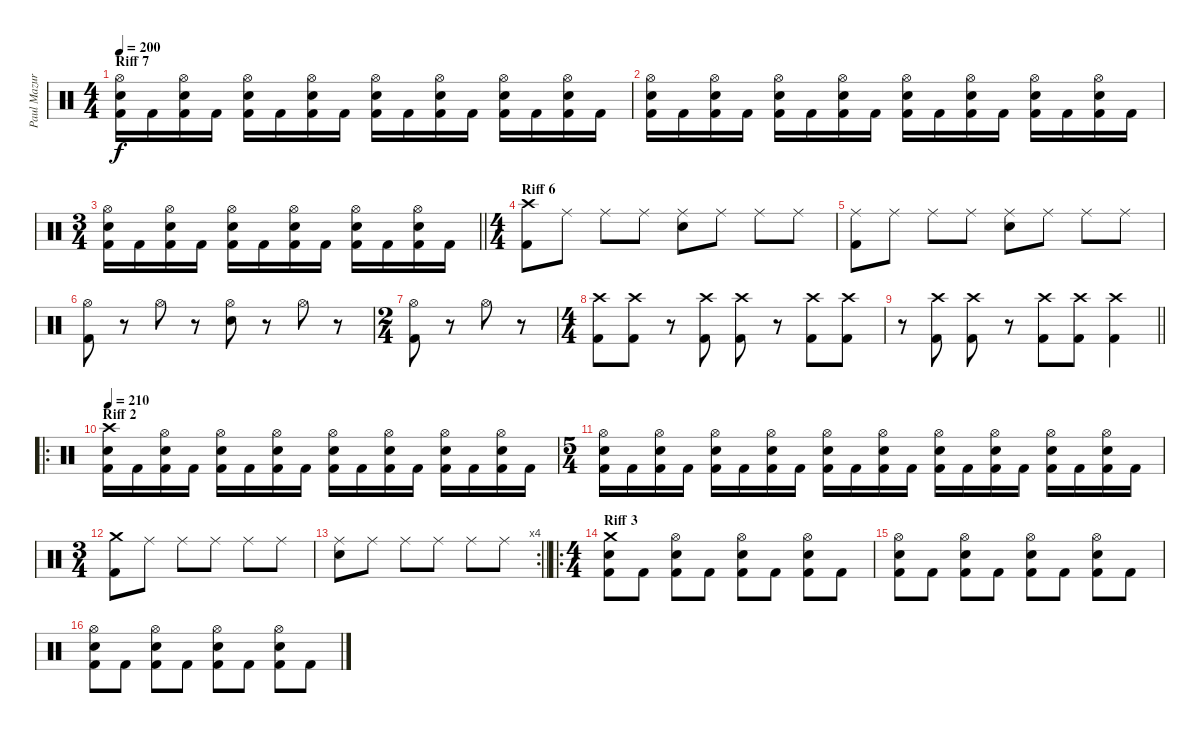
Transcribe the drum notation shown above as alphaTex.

\track ("Paul Mazurkiewicz" "Paul Mazur") {instrument percussion}
\staff {score}
\articulation defaults
\ts (4 4)
\section ("" "Riff 7")
\tempo 200
\clef neutral
\ks c
("Hi-Hat (open)" "Electric Snare (hit)" "Kick (hit) 2").16{dy f} "Kick (hit) 2".16 ("Hi-Hat (open)" "Electric Snare (hit)" "Kick (hit) 2").16 "Kick (hit) 2".16 ("Hi-Hat (open)" "Electric Snare (hit)" "Kick (hit) 2").16 "Kick (hit) 2".16 ("Hi-Hat (open)" "Electric Snare (hit)" "Kick (hit) 2").16 "Kick (hit) 2".16 ("Hi-Hat (open)" "Electric Snare (hit)" "Kick (hit) 2").16 "Kick (hit) 2".16 ("Hi-Hat (open)" "Electric Snare (hit)" "Kick (hit) 2").16 "Kick (hit) 2".16 ("Hi-Hat (open)" "Electric Snare (hit)" "Kick (hit) 2").16 "Kick (hit) 2".16 ("Hi-Hat (open)" "Electric Snare (hit)" "Kick (hit) 2").16 "Kick (hit) 2".16 |
("Hi-Hat (open)" "Electric Snare (hit)" "Kick (hit) 2").16 "Kick (hit) 2".16 ("Hi-Hat (open)" "Electric Snare (hit)" "Kick (hit) 2").16 "Kick (hit) 2".16 ("Hi-Hat (open)" "Electric Snare (hit)" "Kick (hit) 2").16 "Kick (hit) 2".16 ("Hi-Hat (open)" "Electric Snare (hit)" "Kick (hit) 2").16 "Kick (hit) 2".16 ("Hi-Hat (open)" "Electric Snare (hit)" "Kick (hit) 2").16 "Kick (hit) 2".16 ("Hi-Hat (open)" "Electric Snare (hit)" "Kick (hit) 2").16 "Kick (hit) 2".16 ("Hi-Hat (open)" "Electric Snare (hit)" "Kick (hit) 2").16 "Kick (hit) 2".16 ("Hi-Hat (open)" "Electric Snare (hit)" "Kick (hit) 2").16 "Kick (hit) 2".16 |
\ts (3 4)
\barLineRight lightlight
("Hi-Hat (open)" "Electric Snare (hit)" "Kick (hit) 2").16 "Kick (hit) 2".16 ("Hi-Hat (open)" "Electric Snare (hit)" "Kick (hit) 2").16 "Kick (hit) 2".16 ("Hi-Hat (open)" "Electric Snare (hit)" "Kick (hit) 2").16 "Kick (hit) 2".16 ("Hi-Hat (open)" "Electric Snare (hit)" "Kick (hit) 2").16 "Kick (hit) 2".16 ("Hi-Hat (open)" "Electric Snare (hit)" "Kick (hit) 2").16 "Kick (hit) 2".16 ("Hi-Hat (open)" "Electric Snare (hit)" "Kick (hit) 2").16 "Kick (hit) 2".16 |
\ts (4 4)
\section ("" "Riff 6")
("Crash high (hit)" "Kick (hit) 2").8 "Ride (middle)".8 "Ride (middle)".8 "Ride (middle)".8 ("Ride (middle)" "Electric Snare (hit)").8 "Ride (middle)".8 "Ride (middle)".8 "Ride (middle)".8 |
("Ride (middle)" "Kick (hit) 2").8 "Ride (middle)".8 "Ride (middle)".8 "Ride (middle)".8 ("Ride (middle)" "Electric Snare (hit)").8 "Ride (middle)".8 "Ride (middle)".8 "Ride (middle)".8 |
("Hi-Hat (open)" "Kick (hit) 2").8 r.8 "Hi-Hat (open)".8 r.8 ("Hi-Hat (open)" "Electric Snare (hit)").8 r.8 "Hi-Hat (open)".8 r.8 |
\ts (2 4)
("Hi-Hat (open)" "Kick (hit) 2").8 r.8 "Hi-Hat (open)".8 r.8 |
\ts (4 4)
("Crash high (hit)" "Kick (hit) 2").8 ("Crash high (hit)" "Kick (hit) 2").8 r.8 ("Crash high (hit)" "Kick (hit) 2").8 ("Crash high (hit)" "Kick (hit) 2").8 r.8 ("Crash high (hit)" "Kick (hit) 2").8 ("Crash high (hit)" "Kick (hit) 2").8 |
\barLineRight lightlight
r.8 ("Crash high (hit)" "Kick (hit) 2").8 ("Crash high (hit)" "Kick (hit) 2").8 r.8 ("Crash high (hit)" "Kick (hit) 2").8 ("Crash high (hit)" "Kick (hit) 2").8 ("Crash high (hit)" "Kick (hit) 2").4 |
\ro
\section ("" "Riff 2")
\tempo 210
("Crash high (hit)" "Electric Snare (hit)" "Kick (hit) 2").16 "Kick (hit) 2".16 ("Hi-Hat (open)" "Electric Snare (hit)" "Kick (hit) 2").16 "Kick (hit) 2".16 ("Hi-Hat (open)" "Electric Snare (hit)" "Kick (hit) 2").16 "Kick (hit) 2".16 ("Hi-Hat (open)" "Electric Snare (hit)" "Kick (hit) 2").16 "Kick (hit) 2".16 ("Hi-Hat (open)" "Electric Snare (hit)" "Kick (hit) 2").16 "Kick (hit) 2".16 ("Hi-Hat (open)" "Electric Snare (hit)" "Kick (hit) 2").16 "Kick (hit) 2".16 ("Hi-Hat (open)" "Electric Snare (hit)" "Kick (hit) 2").16 "Kick (hit) 2".16 ("Hi-Hat (open)" "Electric Snare (hit)" "Kick (hit) 2").16 "Kick (hit) 2".16 |
\ts (5 4)
("Hi-Hat (open)" "Electric Snare (hit)" "Kick (hit) 2").16 "Kick (hit) 2".16 ("Hi-Hat (open)" "Electric Snare (hit)" "Kick (hit) 2").16 "Kick (hit) 2".16 ("Hi-Hat (open)" "Electric Snare (hit)" "Kick (hit) 2").16 "Kick (hit) 2".16 ("Hi-Hat (open)" "Electric Snare (hit)" "Kick (hit) 2").16 "Kick (hit) 2".16 ("Hi-Hat (open)" "Electric Snare (hit)" "Kick (hit) 2").16 "Kick (hit) 2".16 ("Hi-Hat (open)" "Electric Snare (hit)" "Kick (hit) 2").16 "Kick (hit) 2".16 ("Hi-Hat (open)" "Electric Snare (hit)" "Kick (hit) 2").16 "Kick (hit) 2".16 ("Hi-Hat (open)" "Electric Snare (hit)" "Kick (hit) 2").16 "Kick (hit) 2".16 ("Hi-Hat (open)" "Electric Snare (hit)" "Kick (hit) 2").16 "Kick (hit) 2".16 ("Hi-Hat (open)" "Electric Snare (hit)" "Kick (hit) 2").16 "Kick (hit) 2".16 |
\ts (3 4)
("Crash medium (hit)" "Kick (hit) 2").8 "Ride (middle)".8 "Ride (middle)".8 "Ride (middle)".8 "Ride (middle)".8 "Ride (middle)".8 |
\rc 4
\barLineRight lightlight
("Ride (middle)" "Electric Snare (hit)").8 "Ride (middle)".8 "Ride (middle)".8 "Ride (middle)".8 "Ride (middle)".8 "Ride (middle)".8 |
\ro
\ts (4 4)
\section ("" "Riff 3")
("Crash medium (hit)" "Electric Snare (hit)" "Kick (hit) 2").8 "Kick (hit) 2".8 ("Hi-Hat (open)" "Electric Snare (hit)" "Kick (hit) 2").8 "Kick (hit) 2".8 ("Hi-Hat (open)" "Electric Snare (hit)" "Kick (hit) 2").8 "Kick (hit) 2".8 ("Hi-Hat (open)" "Electric Snare (hit)" "Kick (hit) 2").8 "Kick (hit) 2".8 |
("Hi-Hat (open)" "Electric Snare (hit)" "Kick (hit) 2").8 "Kick (hit) 2".8 ("Hi-Hat (open)" "Electric Snare (hit)" "Kick (hit) 2").8 "Kick (hit) 2".8 ("Hi-Hat (open)" "Electric Snare (hit)" "Kick (hit) 2").8 "Kick (hit) 2".8 ("Hi-Hat (open)" "Electric Snare (hit)" "Kick (hit) 2").8 "Kick (hit) 2".8 |
("Hi-Hat (open)" "Electric Snare (hit)" "Kick (hit) 2").8 "Kick (hit) 2".8 ("Hi-Hat (open)" "Electric Snare (hit)" "Kick (hit) 2").8 "Kick (hit) 2".8 ("Hi-Hat (open)" "Electric Snare (hit)" "Kick (hit) 2").8 "Kick (hit) 2".8 ("Hi-Hat (open)" "Electric Snare (hit)" "Kick (hit) 2").8 "Kick (hit) 2".8
